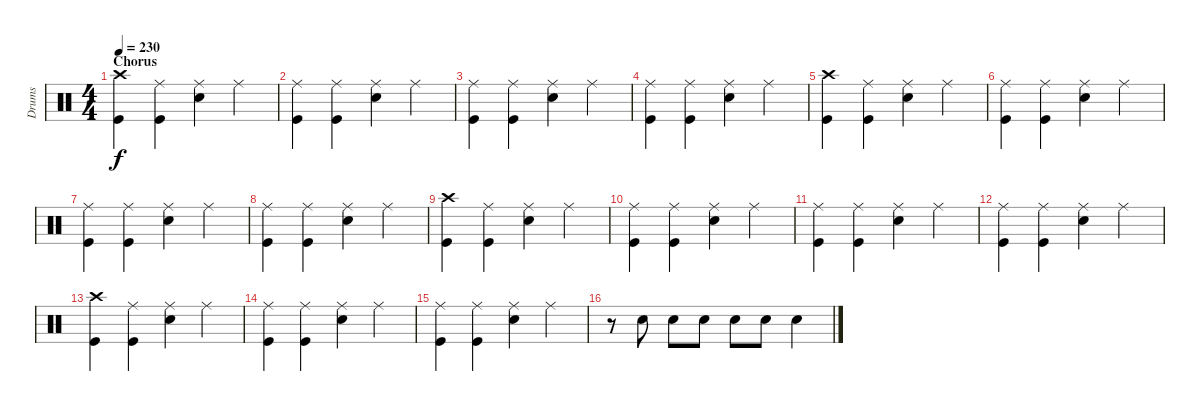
\track ("Drums" "Drums") {instrument percussion}
\staff {score}
\articulation defaults
\ts (4 4)
\section ("" "Chorus")
\tempo 230
\clef neutral
\ks c
("Crash high (hit)" "Kick (hit)").4{dy f} ("Ride (middle)" "Kick (hit)").4 ("Ride (middle)" "Snare (hit) 2").4 "Ride (middle)".4 |
("Ride (middle)" "Kick (hit)").4 ("Ride (middle)" "Kick (hit)").4 ("Ride (middle)" "Snare (hit) 2").4 "Ride (middle)".4 |
("Ride (middle)" "Kick (hit)").4 ("Ride (middle)" "Kick (hit)").4 ("Ride (middle)" "Snare (hit) 2").4 "Ride (middle)".4 |
("Ride (middle)" "Kick (hit)").4 ("Ride (middle)" "Kick (hit)").4 ("Ride (middle)" "Snare (hit) 2").4 "Ride (middle)".4 |
("Crash high (hit)" "Kick (hit)").4 ("Ride (middle)" "Kick (hit)").4 ("Ride (middle)" "Snare (hit) 2").4 "Ride (middle)".4 |
("Ride (middle)" "Kick (hit)").4 ("Ride (middle)" "Kick (hit)").4 ("Ride (middle)" "Snare (hit) 2").4 "Ride (middle)".4 |
("Ride (middle)" "Kick (hit)").4 ("Ride (middle)" "Kick (hit)").4 ("Ride (middle)" "Snare (hit) 2").4 "Ride (middle)".4 |
("Ride (middle)" "Kick (hit)").4 ("Ride (middle)" "Kick (hit)").4 ("Ride (middle)" "Snare (hit) 2").4 "Ride (middle)".4 |
("Crash high (hit)" "Kick (hit)").4 ("Ride (middle)" "Kick (hit)").4 ("Ride (middle)" "Snare (hit) 2").4 "Ride (middle)".4 |
("Ride (middle)" "Kick (hit)").4 ("Ride (middle)" "Kick (hit)").4 ("Ride (middle)" "Snare (hit) 2").4 "Ride (middle)".4 |
("Ride (middle)" "Kick (hit)").4 ("Ride (middle)" "Kick (hit)").4 ("Ride (middle)" "Snare (hit) 2").4 "Ride (middle)".4 |
("Ride (middle)" "Kick (hit)").4 ("Ride (middle)" "Kick (hit)").4 ("Ride (middle)" "Snare (hit) 2").4 "Ride (middle)".4 |
("Crash high (hit)" "Kick (hit)").4 ("Ride (middle)" "Kick (hit)").4 ("Ride (middle)" "Snare (hit) 2").4 "Ride (middle)".4 |
("Ride (middle)" "Kick (hit)").4 ("Ride (middle)" "Kick (hit)").4 ("Ride (middle)" "Snare (hit) 2").4 "Ride (middle)".4 |
("Ride (middle)" "Kick (hit)").4 ("Ride (middle)" "Kick (hit)").4 ("Ride (middle)" "Snare (hit) 2").4 "Ride (middle)".4 |
r.8 "Snare (hit) 2".8 "Snare (hit) 2".8 "Snare (hit) 2".8 "Snare (hit) 2".8 "Snare (hit) 2".8 "Snare (hit) 2".4
